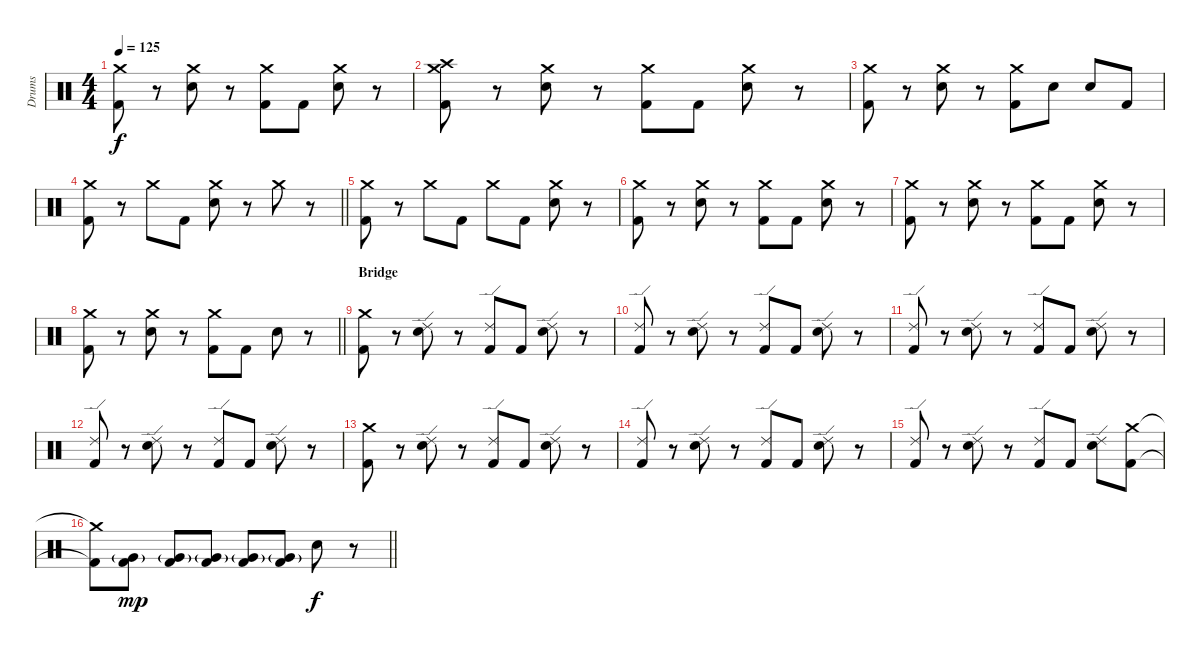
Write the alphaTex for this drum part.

\track ("Drums" "Drums") {instrument percussion}
\staff {score}
\articulation defaults
\ts (4 4)
\tempo 125
\clef neutral
\ks c
("Crash medium (hit)" "Kick (hit) 2").8{dy f} r.8 ("Crash medium (hit)" "Electric Snare (hit)").8 r.8 ("Crash medium (hit)" "Kick (hit) 2").8 "Kick (hit) 2".8 ("Crash medium (hit)" "Electric Snare (hit)").8 r.8 |
("Crash high (hit)" "Crash medium (hit)" "Kick (hit) 2").8 r.8 ("Crash medium (hit)" "Electric Snare (hit)").8 r.8 ("Crash medium (hit)" "Kick (hit) 2").8 "Kick (hit) 2".8 ("Crash medium (hit)" "Electric Snare (hit)").8 r.8 |
("Crash medium (hit)" "Kick (hit) 2").8 r.8 ("Crash medium (hit)" "Electric Snare (hit)").8 r.8 ("Crash medium (hit)" "Kick (hit) 2").8 "Electric Snare (hit)".8 "Electric Snare (hit)".8 "Kick (hit) 2".8 |
\barLineRight lightlight
("Crash medium (hit)" "Kick (hit) 2").8 r.8 "Crash medium (hit)".8 "Kick (hit) 2".8 ("Crash medium (hit)" "Electric Snare (hit)").8 r.8 "Crash medium (hit)".8 r.8 |
("Crash medium (hit)" "Kick (hit) 2").8 r.8 "Crash medium (hit)".8 "Kick (hit) 2".8 "Crash medium (hit)".8 "Kick (hit) 2".8 ("Crash medium (hit)" "Electric Snare (hit)").8 r.8 |
("Crash medium (hit)" "Kick (hit) 2").8 r.8 ("Crash medium (hit)" "Electric Snare (hit)").8 r.8 ("Crash medium (hit)" "Kick (hit) 2").8 "Kick (hit) 2".8 ("Crash medium (hit)" "Electric Snare (hit)").8 r.8 |
("Crash medium (hit)" "Kick (hit) 2").8 r.8 ("Crash medium (hit)" "Electric Snare (hit)").8 r.8 ("Crash medium (hit)" "Kick (hit) 2").8 "Kick (hit) 2".8 ("Crash medium (hit)" "Electric Snare (hit)").8 r.8 |
\barLineRight lightlight
("Crash medium (hit)" "Kick (hit) 2").8 r.8 ("Crash medium (hit)" "Electric Snare (hit)").8 r.8 ("Crash medium (hit)" "Kick (hit) 2").8 "Kick (hit) 2".8 "Electric Snare (hit)".8 r.8 |
\section ("" "Bridge")
("Crash medium (hit)" "Kick (hit) 2").8 r.8 ("Ride (edge) 2" "Electric Snare (hit)").8 r.8 ("Ride (edge) 2" "Kick (hit) 2").8 "Kick (hit) 2".8 ("Ride (edge) 2" "Electric Snare (hit)").8 r.8 |
("Ride (edge) 2" "Kick (hit) 2").8 r.8 ("Ride (edge) 2" "Electric Snare (hit)").8 r.8 ("Ride (edge) 2" "Kick (hit) 2").8 "Kick (hit) 2".8 ("Ride (edge) 2" "Electric Snare (hit)").8 r.8 |
("Ride (edge) 2" "Kick (hit) 2").8 r.8 ("Ride (edge) 2" "Electric Snare (hit)").8 r.8 ("Ride (edge) 2" "Kick (hit) 2").8 "Kick (hit) 2".8 ("Ride (edge) 2" "Electric Snare (hit)").8 r.8 |
("Ride (edge) 2" "Kick (hit) 2").8 r.8 ("Ride (edge) 2" "Electric Snare (hit)").8 r.8 ("Ride (edge) 2" "Kick (hit) 2").8 "Kick (hit) 2".8 ("Ride (edge) 2" "Electric Snare (hit)").8 r.8 |
("Crash medium (hit)" "Kick (hit) 2").8 r.8 ("Ride (edge) 2" "Electric Snare (hit)").8 r.8 ("Ride (edge) 2" "Kick (hit) 2").8 "Kick (hit) 2".8 ("Ride (edge) 2" "Electric Snare (hit)").8 r.8 |
("Ride (edge) 2" "Kick (hit) 2").8 r.8 ("Ride (edge) 2" "Electric Snare (hit)").8 r.8 ("Ride (edge) 2" "Kick (hit) 2").8 "Kick (hit) 2".8 ("Ride (edge) 2" "Electric Snare (hit)").8 r.8 |
("Ride (edge) 2" "Kick (hit) 2").8 r.8 ("Ride (edge) 2" "Electric Snare (hit)").8 r.8 ("Ride (edge) 2" "Kick (hit) 2").8 "Kick (hit) 2".8 ("Ride (edge) 2" "Electric Snare (hit)").8 ("Crash medium (hit)" "Kick (hit) 2").8 |
\barLineRight lightlight
("Crash medium (hit)"{t} "Kick (hit) 2"{t}).8 ("Kick (hit) 2" "Very Low Tom (hit)"{g}).8{dy mp} ("Kick (hit) 2" "Very Low Tom (hit)"{g}).8 ("Kick (hit) 2" "Very Low Tom (hit)"{g}).8 ("Kick (hit) 2" "Very Low Tom (hit)"{g}).8 ("Kick (hit) 2" "Very Low Tom (hit)"{g}).8 "Electric Snare (hit)".8{dy f} r.8
